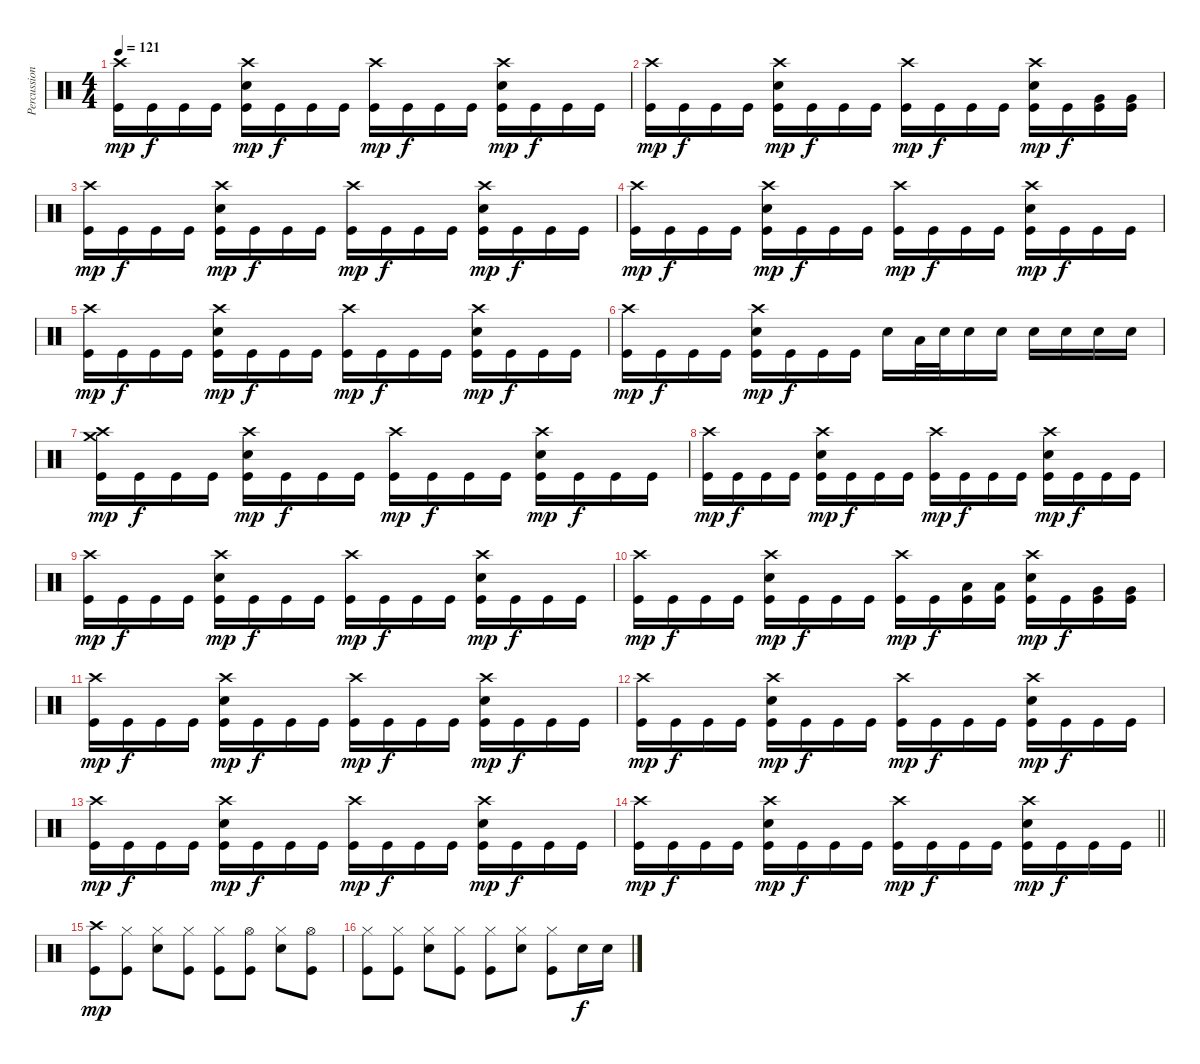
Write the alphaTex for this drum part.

\track ("Percussion" "Percussion") {instrument percussion}
\staff {score}
\articulation defaults
\ts (4 4)
\tempo 121
\clef neutral
\ks c
("Crash high (hit)" "Kick (hit)").16{dy mp} "Kick (hit)".16{dy f} "Kick (hit)".16 "Kick (hit)".16 ("Crash high (hit)" "Electric Snare (hit)" "Kick (hit)").16{dy mp} "Kick (hit)".16{dy f} "Kick (hit)".16 "Kick (hit)".16 ("Crash high (hit)" "Kick (hit)").16{dy mp} "Kick (hit)".16{dy f} "Kick (hit)".16 "Kick (hit)".16 ("Crash high (hit)" "Electric Snare (hit)" "Kick (hit)").16{dy mp} "Kick (hit)".16{dy f} "Kick (hit)".16 "Kick (hit)".16 |
("Crash high (hit)" "Kick (hit)").16{dy mp} "Kick (hit)".16{dy f} "Kick (hit)".16 "Kick (hit)".16 ("Crash high (hit)" "Electric Snare (hit)" "Kick (hit)").16{dy mp} "Kick (hit)".16{dy f} "Kick (hit)".16 "Kick (hit)".16 ("Crash high (hit)" "Kick (hit)").16{dy mp} "Kick (hit)".16{dy f} "Kick (hit)".16 "Kick (hit)".16 ("Crash high (hit)" "Electric Snare (hit)" "Kick (hit)").16{dy mp} "Kick (hit)".16{dy f} ("Very Low Tom (hit)" "Kick (hit)").16 ("Very Low Tom (hit)" "Kick (hit)").16 |
("Crash high (hit)" "Kick (hit)").16{dy mp} "Kick (hit)".16{dy f} "Kick (hit)".16 "Kick (hit)".16 ("Crash high (hit)" "Electric Snare (hit)" "Kick (hit)").16{dy mp} "Kick (hit)".16{dy f} "Kick (hit)".16 "Kick (hit)".16 ("Crash high (hit)" "Kick (hit)").16{dy mp} "Kick (hit)".16{dy f} "Kick (hit)".16 "Kick (hit)".16 ("Crash high (hit)" "Electric Snare (hit)" "Kick (hit)").16{dy mp} "Kick (hit)".16{dy f} "Kick (hit)".16 "Kick (hit)".16 |
("Crash high (hit)" "Kick (hit)").16{dy mp} "Kick (hit)".16{dy f} "Kick (hit)".16 "Kick (hit)".16 ("Crash high (hit)" "Electric Snare (hit)" "Kick (hit)").16{dy mp} "Kick (hit)".16{dy f} "Kick (hit)".16 "Kick (hit)".16 ("Crash high (hit)" "Kick (hit)").16{dy mp} "Kick (hit)".16{dy f} "Kick (hit)".16 "Kick (hit)".16 ("Crash high (hit)" "Electric Snare (hit)" "Kick (hit)").16{dy mp} "Kick (hit)".16{dy f} "Kick (hit)".16 "Kick (hit)".16 |
("Crash high (hit)" "Kick (hit)").16{dy mp} "Kick (hit)".16{dy f} "Kick (hit)".16 "Kick (hit)".16 ("Crash high (hit)" "Electric Snare (hit)" "Kick (hit)").16{dy mp} "Kick (hit)".16{dy f} "Kick (hit)".16 "Kick (hit)".16 ("Crash high (hit)" "Kick (hit)").16{dy mp} "Kick (hit)".16{dy f} "Kick (hit)".16 "Kick (hit)".16 ("Crash high (hit)" "Electric Snare (hit)" "Kick (hit)").16{dy mp} "Kick (hit)".16{dy f} "Kick (hit)".16 "Kick (hit)".16 |
("Crash high (hit)" "Kick (hit)").16{dy mp} "Kick (hit)".16{dy f} "Kick (hit)".16 "Kick (hit)".16 ("Crash high (hit)" "Electric Snare (hit)" "Kick (hit)").16{dy mp} "Kick (hit)".16{dy f} "Kick (hit)".16 "Kick (hit)".16 "Electric Snare (hit)".16 "Low Tom (hit)".32 "Electric Snare (hit)".32 "Electric Snare (hit)".16 "Electric Snare (hit)".16 "Electric Snare (hit)".16 "Electric Snare (hit)".16 "Electric Snare (hit)".16 "Electric Snare (hit)".16 |
("Crash high (hit)" "Crash medium (hit)" "Kick (hit)").16{dy mp} "Kick (hit)".16{dy f} "Kick (hit)".16 "Kick (hit)".16 ("Crash high (hit)" "Electric Snare (hit)" "Kick (hit)").16{dy mp} "Kick (hit)".16{dy f} "Kick (hit)".16 "Kick (hit)".16 ("Crash high (hit)" "Kick (hit)").16{dy mp} "Kick (hit)".16{dy f} "Kick (hit)".16 "Kick (hit)".16 ("Crash high (hit)" "Electric Snare (hit)" "Kick (hit)").16{dy mp} "Kick (hit)".16{dy f} "Kick (hit)".16 "Kick (hit)".16 |
("Crash high (hit)" "Kick (hit)").16{dy mp} "Kick (hit)".16{dy f} "Kick (hit)".16 "Kick (hit)".16 ("Crash high (hit)" "Electric Snare (hit)" "Kick (hit)").16{dy mp} "Kick (hit)".16{dy f} "Kick (hit)".16 "Kick (hit)".16 ("Crash high (hit)" "Kick (hit)").16{dy mp} "Kick (hit)".16{dy f} "Kick (hit)".16 "Kick (hit)".16 ("Crash high (hit)" "Electric Snare (hit)" "Kick (hit)").16{dy mp} "Kick (hit)".16{dy f} "Kick (hit)".16 "Kick (hit)".16 |
("Crash high (hit)" "Kick (hit)").16{dy mp} "Kick (hit)".16{dy f} "Kick (hit)".16 "Kick (hit)".16 ("Crash high (hit)" "Electric Snare (hit)" "Kick (hit)").16{dy mp} "Kick (hit)".16{dy f} "Kick (hit)".16 "Kick (hit)".16 ("Crash high (hit)" "Kick (hit)").16{dy mp} "Kick (hit)".16{dy f} "Kick (hit)".16 "Kick (hit)".16 ("Crash high (hit)" "Electric Snare (hit)" "Kick (hit)").16{dy mp} "Kick (hit)".16{dy f} "Kick (hit)".16 "Kick (hit)".16 |
("Crash high (hit)" "Kick (hit)").16{dy mp} "Kick (hit)".16{dy f} "Kick (hit)".16 "Kick (hit)".16 ("Crash high (hit)" "Electric Snare (hit)" "Kick (hit)").16{dy mp} "Kick (hit)".16{dy f} "Kick (hit)".16 "Kick (hit)".16 ("Crash high (hit)" "Kick (hit)").16{dy mp} "Kick (hit)".16{dy f} ("Low Tom (hit)" "Kick (hit)").16 ("Low Tom (hit)" "Kick (hit)").16 ("Crash high (hit)" "Electric Snare (hit)" "Kick (hit)").16{dy mp} "Kick (hit)".16{dy f} ("Very Low Tom (hit)" "Kick (hit)").16 ("Very Low Tom (hit)" "Kick (hit)").16 |
("Crash high (hit)" "Kick (hit)").16{dy mp} "Kick (hit)".16{dy f} "Kick (hit)".16 "Kick (hit)".16 ("Crash high (hit)" "Electric Snare (hit)" "Kick (hit)").16{dy mp} "Kick (hit)".16{dy f} "Kick (hit)".16 "Kick (hit)".16 ("Crash high (hit)" "Kick (hit)").16{dy mp} "Kick (hit)".16{dy f} "Kick (hit)".16 "Kick (hit)".16 ("Crash high (hit)" "Electric Snare (hit)" "Kick (hit)").16{dy mp} "Kick (hit)".16{dy f} "Kick (hit)".16 "Kick (hit)".16 |
("Crash high (hit)" "Kick (hit)").16{dy mp} "Kick (hit)".16{dy f} "Kick (hit)".16 "Kick (hit)".16 ("Crash high (hit)" "Electric Snare (hit)" "Kick (hit)").16{dy mp} "Kick (hit)".16{dy f} "Kick (hit)".16 "Kick (hit)".16 ("Crash high (hit)" "Kick (hit)").16{dy mp} "Kick (hit)".16{dy f} "Kick (hit)".16 "Kick (hit)".16 ("Crash high (hit)" "Electric Snare (hit)" "Kick (hit)").16{dy mp} "Kick (hit)".16{dy f} "Kick (hit)".16 "Kick (hit)".16 |
("Crash high (hit)" "Kick (hit)").16{dy mp} "Kick (hit)".16{dy f} "Kick (hit)".16 "Kick (hit)".16 ("Crash high (hit)" "Electric Snare (hit)" "Kick (hit)").16{dy mp} "Kick (hit)".16{dy f} "Kick (hit)".16 "Kick (hit)".16 ("Crash high (hit)" "Kick (hit)").16{dy mp} "Kick (hit)".16{dy f} "Kick (hit)".16 "Kick (hit)".16 ("Crash high (hit)" "Electric Snare (hit)" "Kick (hit)").16{dy mp} "Kick (hit)".16{dy f} "Kick (hit)".16 "Kick (hit)".16 |
\barLineRight lightlight
("Crash high (hit)" "Kick (hit)").16{dy mp} "Kick (hit)".16{dy f} "Kick (hit)".16 "Kick (hit)".16 ("Crash high (hit)" "Electric Snare (hit)" "Kick (hit)").16{dy mp} "Kick (hit)".16{dy f} "Kick (hit)".16 "Kick (hit)".16 ("Crash high (hit)" "Kick (hit)").16{dy mp} "Kick (hit)".16{dy f} "Kick (hit)".16 "Kick (hit)".16 ("Crash high (hit)" "Electric Snare (hit)" "Kick (hit)").16{dy mp} "Kick (hit)".16{dy f} "Kick (hit)".16 "Kick (hit)".16 |
\section ("" "")
("Crash high (hit)" "Kick (hit)").8{dy mp} ("Hi-Hat (closed)" "Kick (hit)").8 ("Hi-Hat (closed)" "Electric Snare (hit)").8 ("Hi-Hat (closed)" "Kick (hit)").8 ("Hi-Hat (closed)" "Kick (hit)").8 ("Hi-Hat (open)" "Kick (hit)").8 ("Hi-Hat (closed)" "Electric Snare (hit)").8 ("Hi-Hat (open)" "Kick (hit)").8 |
("Hi-Hat (closed)" "Kick (hit)").8 ("Hi-Hat (closed)" "Kick (hit)").8 ("Hi-Hat (closed)" "Electric Snare (hit)").8 ("Hi-Hat (closed)" "Kick (hit)").8 ("Hi-Hat (closed)" "Kick (hit)").8 ("Hi-Hat (closed)" "Electric Snare (hit)").8 ("Hi-Hat (closed)" "Kick (hit)").8 "Electric Snare (hit)".16{dy f} "Electric Snare (hit)".16
